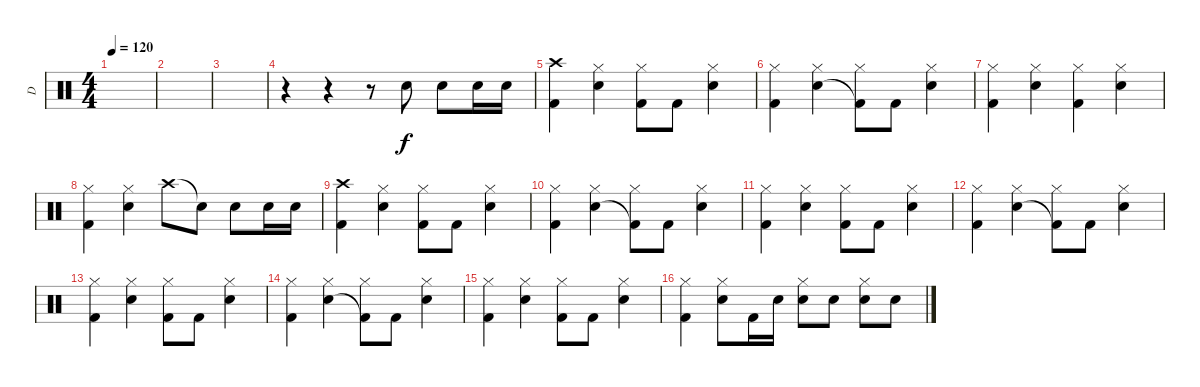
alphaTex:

\track ("D" "D") {instrument percussion}
\staff {score}
\articulation defaults
\ts (4 4)
\tempo 120
\clef neutral
\ks c
|
|
|
r.4 r.4 r.8 "Snare (hit) 2".8 "Snare (hit) 2".8 "Snare (hit) 2".16 "Snare (hit) 2".16 |
("Crash high (hit)" "Kick (hit) 2").4 ("Hi-Hat (closed)" "Snare (hit) 2").4 ("Hi-Hat (closed)" "Kick (hit) 2").8 "Kick (hit) 2".8 ("Hi-Hat (closed)" "Snare (hit) 2").4 |
("Hi-Hat (closed)" "Kick (hit) 2").4 ("Hi-Hat (closed)" "Snare (hit) 2").4 ("Hi-Hat (closed)" "Kick (hit) 2"{t}).8 "Kick (hit) 2".8 ("Hi-Hat (closed)" "Snare (hit) 2").4 |
("Hi-Hat (closed)" "Kick (hit) 2").4 ("Hi-Hat (closed)" "Snare (hit) 2").4 ("Hi-Hat (closed)" "Kick (hit) 2").4 ("Hi-Hat (closed)" "Snare (hit) 2").4 |
("Hi-Hat (closed)" "Kick (hit) 2").4 ("Hi-Hat (closed)" "Snare (hit) 2").4 "Crash high (hit)".8 "Snare (hit)"{t}.8 "Snare (hit) 2".8 "Snare (hit) 2".16 "Snare (hit) 2".16 |
("Crash high (hit)" "Kick (hit) 2").4 ("Hi-Hat (closed)" "Snare (hit) 2").4 ("Hi-Hat (closed)" "Kick (hit) 2").8 "Kick (hit) 2".8 ("Hi-Hat (closed)" "Snare (hit) 2").4 |
("Hi-Hat (closed)" "Kick (hit) 2").4 ("Hi-Hat (closed)" "Snare (hit) 2").4 ("Hi-Hat (closed)" "Kick (hit) 2"{t}).8 "Kick (hit) 2".8 ("Hi-Hat (closed)" "Snare (hit) 2").4 |
("Hi-Hat (closed)" "Kick (hit) 2").4 ("Hi-Hat (closed)" "Snare (hit) 2").4 ("Hi-Hat (closed)" "Kick (hit) 2").8 "Kick (hit) 2".8 ("Hi-Hat (closed)" "Snare (hit) 2").4 |
("Hi-Hat (closed)" "Kick (hit) 2").4 ("Hi-Hat (closed)" "Snare (hit) 2").4 ("Hi-Hat (closed)" "Kick (hit) 2"{t}).8 "Kick (hit) 2".8 ("Hi-Hat (closed)" "Snare (hit) 2").4 |
("Hi-Hat (closed)" "Kick (hit) 2").4 ("Hi-Hat (closed)" "Snare (hit) 2").4 ("Hi-Hat (closed)" "Kick (hit) 2").8 "Kick (hit) 2".8 ("Hi-Hat (closed)" "Snare (hit) 2").4 |
("Hi-Hat (closed)" "Kick (hit) 2").4 ("Hi-Hat (closed)" "Snare (hit) 2").4 ("Hi-Hat (closed)" "Kick (hit) 2"{t}).8 "Kick (hit) 2".8 ("Hi-Hat (closed)" "Snare (hit) 2").4 |
("Hi-Hat (closed)" "Kick (hit) 2").4 ("Hi-Hat (closed)" "Snare (hit) 2").4 ("Hi-Hat (closed)" "Kick (hit) 2").8 "Kick (hit) 2".8 ("Hi-Hat (closed)" "Snare (hit) 2").4 |
("Hi-Hat (closed)" "Kick (hit) 2").4 ("Hi-Hat (closed)" "Snare (hit) 2").8 "Kick (hit) 2".16 "Snare (hit) 2".16 ("Hi-Hat (closed)" "Snare (hit) 2").8 "Snare (hit) 2".8 ("Hi-Hat (closed)" "Snare (hit) 2").8 "Snare (hit) 2".8
